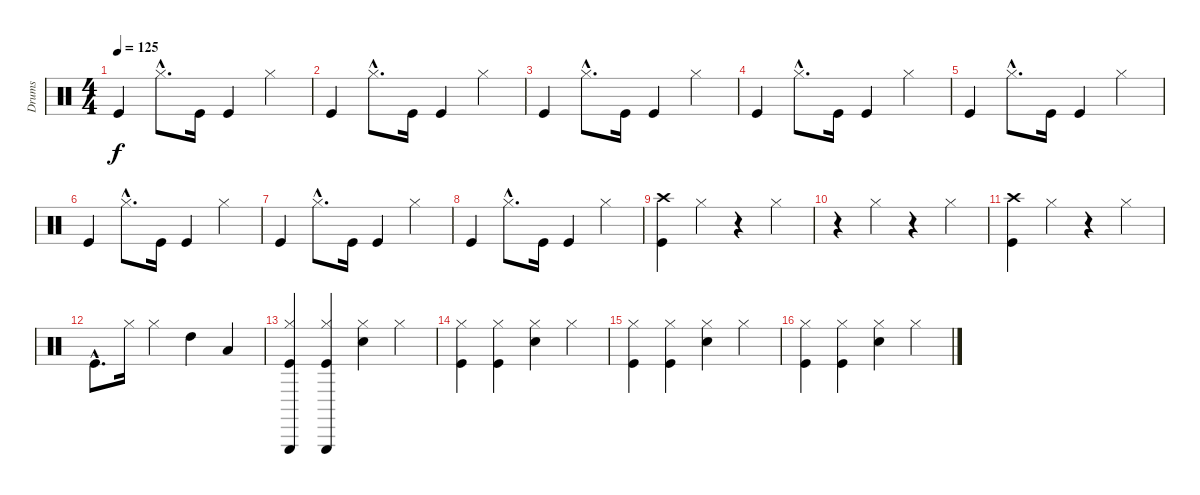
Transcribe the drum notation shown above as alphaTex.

\track ("Drums" "Drums") {instrument percussion}
\staff {score}
\articulation defaults
\ts (4 4)
\tempo 125
\clef neutral
\ks c "Kick (hit)".4{dy f} "Hi-Hat (closed)"{hac}.8{d} "Kick (hit)".16 "Kick (hit)".4 "Hi-Hat (closed)".4
|
"Kick (hit)".4 "Hi-Hat (closed)"{hac}.8{d} "Kick (hit)".16 "Kick (hit)".4 "Hi-Hat (closed)".4 |
"Kick (hit)".4 "Hi-Hat (closed)"{hac}.8{d} "Kick (hit)".16 "Kick (hit)".4 "Hi-Hat (closed)".4 |
"Kick (hit)".4 "Hi-Hat (closed)"{hac}.8{d} "Kick (hit)".16 "Kick (hit)".4 "Hi-Hat (closed)".4 |
"Kick (hit)".4 "Hi-Hat (closed)"{hac}.8{d} "Kick (hit)".16 "Kick (hit)".4 "Hi-Hat (closed)".4 |
"Kick (hit)".4 "Hi-Hat (closed)"{hac}.8{d} "Kick (hit)".16 "Kick (hit)".4 "Hi-Hat (closed)".4 |
"Kick (hit)".4 "Hi-Hat (closed)"{hac}.8{d} "Kick (hit)".16 "Kick (hit)".4 "Hi-Hat (closed)".4 |
"Kick (hit)".4 "Hi-Hat (closed)"{hac}.8{d} "Kick (hit)".16 "Kick (hit)".4 "Hi-Hat (closed)".4 |
("Crash high (hit)" "Kick (hit)").4 "Hi-Hat (closed)".4 r.4 "Hi-Hat (closed)".4 |
r.4 "Hi-Hat (closed)".4 r.4 "Hi-Hat (closed)".4 |
("Crash high (hit)" "Kick (hit)").4 "Hi-Hat (closed)".4 r.4 "Hi-Hat (closed)".4 |
"Kick (hit)"{hac}.8{d} "Hi-Hat (closed)".16 "Hi-Hat (closed)".4 "High Tom (hit)".4 "Low Floor Tom (hit)".4 |
("Hi-Hat (closed)" "Triangle (hit)" "Kick (hit)").4{volume 16} ("Hi-Hat (closed)" "Triangle (hit)" "Kick (hit)").4 ("Hi-Hat (closed)" "Snare (hit) 2").4{volume 13} "Hi-Hat (closed)".4 |
("Hi-Hat (closed)" "Kick (hit)").4 ("Hi-Hat (closed)" "Kick (hit)").4 ("Hi-Hat (closed)" "Snare (hit) 2").4 "Hi-Hat (closed)".4 |
("Hi-Hat (closed)" "Kick (hit)").4 ("Hi-Hat (closed)" "Kick (hit)").4 ("Hi-Hat (closed)" "Snare (hit) 2").4 "Hi-Hat (closed)".4 |
("Hi-Hat (closed)" "Kick (hit)").4 ("Hi-Hat (closed)" "Kick (hit)").4 ("Hi-Hat (closed)" "Snare (hit) 2").4 "Hi-Hat (closed)".4
